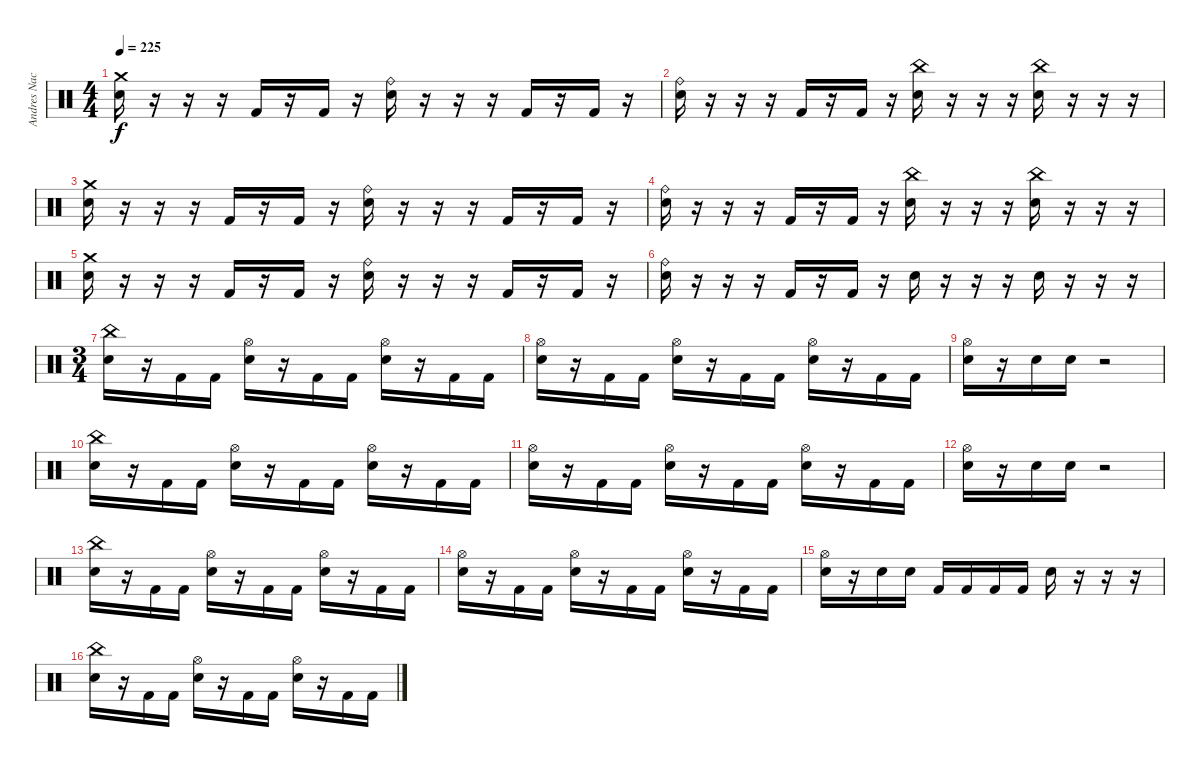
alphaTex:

\track ("Andres Nacrur" "Andres Nac") {instrument percussion}
\staff {score}
\articulation defaults
\ts (4 4)
\tempo 225
\clef neutral
\ks c
("Crash medium (hit)" "Snare (hit) 2").16{dy f} r.16 r.16 r.16 "Kick (hit) 2".16 r.16 "Kick (hit) 2".16 r.16 ("Ride (bell)" "Snare (hit) 2").16 r.16 r.16 r.16 "Kick (hit) 2".16 r.16 "Kick (hit) 2".16 r.16 |
("Ride (bell)" "Snare (hit) 2").16 r.16 r.16 r.16 "Kick (hit) 2".16 r.16 "Kick (hit) 2".16 r.16 ("China (hit)" "Snare (hit) 2").16 r.16 r.16 r.16 ("China (hit)" "Snare (hit) 2").16 r.16 r.16 r.16 |
("Crash medium (hit)" "Snare (hit) 2").16 r.16 r.16 r.16 "Kick (hit) 2".16 r.16 "Kick (hit) 2".16 r.16 ("Ride (bell)" "Snare (hit) 2").16 r.16 r.16 r.16 "Kick (hit) 2".16 r.16 "Kick (hit) 2".16 r.16 |
("Ride (bell)" "Snare (hit) 2").16 r.16 r.16 r.16 "Kick (hit) 2".16 r.16 "Kick (hit) 2".16 r.16 ("China (hit)" "Snare (hit) 2").16 r.16 r.16 r.16 ("China (hit)" "Snare (hit) 2").16 r.16 r.16 r.16 |
("Crash medium (hit)" "Snare (hit) 2").16 r.16 r.16 r.16 "Kick (hit) 2".16 r.16 "Kick (hit) 2".16 r.16 ("Ride (bell)" "Snare (hit) 2").16 r.16 r.16 r.16 "Kick (hit) 2".16 r.16 "Kick (hit) 2".16 r.16 |
("Ride (bell)" "Snare (hit) 2").16 r.16 r.16 r.16 "Kick (hit) 2".16 r.16 "Kick (hit) 2".16 r.16 "Snare (hit) 2".16 r.16 r.16 r.16 "Snare (hit) 2".16 r.16 r.16 r.16 |
\ts (3 4)
("China (hit)" "Snare (hit) 2").16 r.16 "Kick (hit) 2".16 "Kick (hit) 2".16 ("Hi-Hat (open)" "Snare (hit) 2").16 r.16 "Kick (hit) 2".16 "Kick (hit) 2".16 ("Hi-Hat (open)" "Snare (hit) 2").16 r.16 "Kick (hit) 2".16 "Kick (hit) 2".16 |
("Hi-Hat (open)" "Snare (hit) 2").16 r.16 "Kick (hit) 2".16 "Kick (hit) 2".16 ("Hi-Hat (open)" "Snare (hit) 2").16 r.16 "Kick (hit) 2".16 "Kick (hit) 2".16 ("Hi-Hat (open)" "Snare (hit) 2").16 r.16 "Kick (hit) 2".16 "Kick (hit) 2".16 |
("Hi-Hat (open)" "Snare (hit) 2").16 r.16 "Snare (hit) 2".16 "Snare (hit) 2".16 r.2 |
("China (hit)" "Snare (hit) 2").16 r.16 "Kick (hit) 2".16 "Kick (hit) 2".16 ("Hi-Hat (open)" "Snare (hit) 2").16 r.16 "Kick (hit) 2".16 "Kick (hit) 2".16 ("Hi-Hat (open)" "Snare (hit) 2").16 r.16 "Kick (hit) 2".16 "Kick (hit) 2".16 |
("Hi-Hat (open)" "Snare (hit) 2").16 r.16 "Kick (hit) 2".16 "Kick (hit) 2".16 ("Hi-Hat (open)" "Snare (hit) 2").16 r.16 "Kick (hit) 2".16 "Kick (hit) 2".16 ("Hi-Hat (open)" "Snare (hit) 2").16 r.16 "Kick (hit) 2".16 "Kick (hit) 2".16 |
("Hi-Hat (open)" "Snare (hit) 2").16 r.16 "Snare (hit) 2".16 "Snare (hit) 2".16 r.2 |
("China (hit)" "Snare (hit) 2").16 r.16 "Kick (hit) 2".16 "Kick (hit) 2".16 ("Hi-Hat (open)" "Snare (hit) 2").16 r.16 "Kick (hit) 2".16 "Kick (hit) 2".16 ("Hi-Hat (open)" "Snare (hit) 2").16 r.16 "Kick (hit) 2".16 "Kick (hit) 2".16 |
("Hi-Hat (open)" "Snare (hit) 2").16 r.16 "Kick (hit) 2".16 "Kick (hit) 2".16 ("Hi-Hat (open)" "Snare (hit) 2").16 r.16 "Kick (hit) 2".16 "Kick (hit) 2".16 ("Hi-Hat (open)" "Snare (hit) 2").16 r.16 "Kick (hit) 2".16 "Kick (hit) 2".16 |
("Hi-Hat (open)" "Snare (hit) 2").16 r.16 "Snare (hit) 2".16 "Snare (hit) 2".16 "Kick (hit) 2".16 "Kick (hit) 2".16 "Kick (hit) 2".16 "Kick (hit) 2".16 "Snare (hit) 2".16 r.16 r.16 r.16 |
("China (hit)" "Snare (hit) 2").16 r.16 "Kick (hit) 2".16 "Kick (hit) 2".16 ("Hi-Hat (open)" "Snare (hit) 2").16 r.16 "Kick (hit) 2".16 "Kick (hit) 2".16 ("Hi-Hat (open)" "Snare (hit) 2").16 r.16 "Kick (hit) 2".16 "Kick (hit) 2".16
